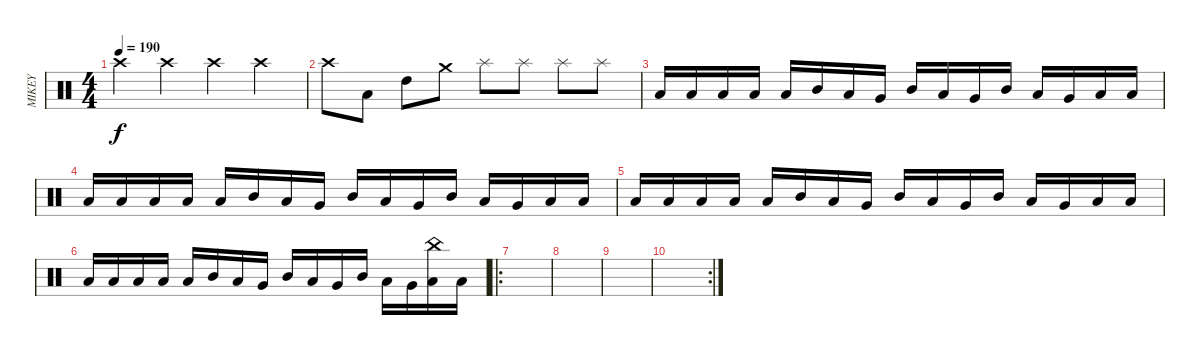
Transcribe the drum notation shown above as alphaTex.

\track ("MIKEY" "MIKEY") {instrument percussion}
\staff {score}
\articulation defaults
\ts (4 4)
\tempo 190
\clef neutral
\ks c "Crash high (hit)".4{dy f} "Crash high (hit)".4 "Crash high (hit)".4 "Crash high (hit)".4
|
"Crash high (hit)".8 "Low Tom (hit)".8 "High Tom (hit)".8 "Crash medium (hit)".8 "Splash (hit)".8 "Splash (hit)".8 "Splash (hit)".8 "Splash (hit)".8 |
"Low Floor Tom (hit)".16 "Low Floor Tom (hit)".16 "Low Floor Tom (hit)".16 "Low Floor Tom (hit)".16 "Low Floor Tom (hit)".16 "Mid Tom (hit)".16 "Low Tom (hit)".16 "Very Low Tom (hit)".16 "Mid Tom (hit)".16 "Low Tom (hit)".16 "Very Low Tom (hit)".16 "Mid Tom (hit)".16 "Low Tom (hit)".16 "Very Low Tom (hit)".16 "Low Floor Tom (hit)".16 "Low Floor Tom (hit)".16 |
"Low Floor Tom (hit)".16 "Low Floor Tom (hit)".16 "Low Floor Tom (hit)".16 "Low Floor Tom (hit)".16 "Low Floor Tom (hit)".16 "Mid Tom (hit)".16 "Low Tom (hit)".16 "Very Low Tom (hit)".16 "Mid Tom (hit)".16 "Low Tom (hit)".16 "Very Low Tom (hit)".16 "Mid Tom (hit)".16 "Low Tom (hit)".16 "Very Low Tom (hit)".16 "Low Floor Tom (hit)".16 "Low Floor Tom (hit)".16 |
"Low Floor Tom (hit)".16 "Low Floor Tom (hit)".16 "Low Floor Tom (hit)".16 "Low Floor Tom (hit)".16 "Low Floor Tom (hit)".16 "Mid Tom (hit)".16 "Low Tom (hit)".16 "Very Low Tom (hit)".16 "Mid Tom (hit)".16 "Low Tom (hit)".16 "Very Low Tom (hit)".16 "Mid Tom (hit)".16 "Low Tom (hit)".16 "Very Low Tom (hit)".16 "Low Floor Tom (hit)".16 "Low Floor Tom (hit)".16 |
"Low Floor Tom (hit)".16 "Low Floor Tom (hit)".16 "Low Floor Tom (hit)".16 "Low Floor Tom (hit)".16 "Low Floor Tom (hit)".16 "Mid Tom (hit)".16 "Low Tom (hit)".16 "Very Low Tom (hit)".16 "Mid Tom (hit)".16 "Low Tom (hit)".16 "Very Low Tom (hit)".16 "Mid Tom (hit)".16 "Low Tom (hit)".16 "Very Low Tom (hit)".16 ("China (hit)" "Low Floor Tom (hit)").16 "Low Floor Tom (hit)".16 |
\ro
|
|
|
\rc 2
